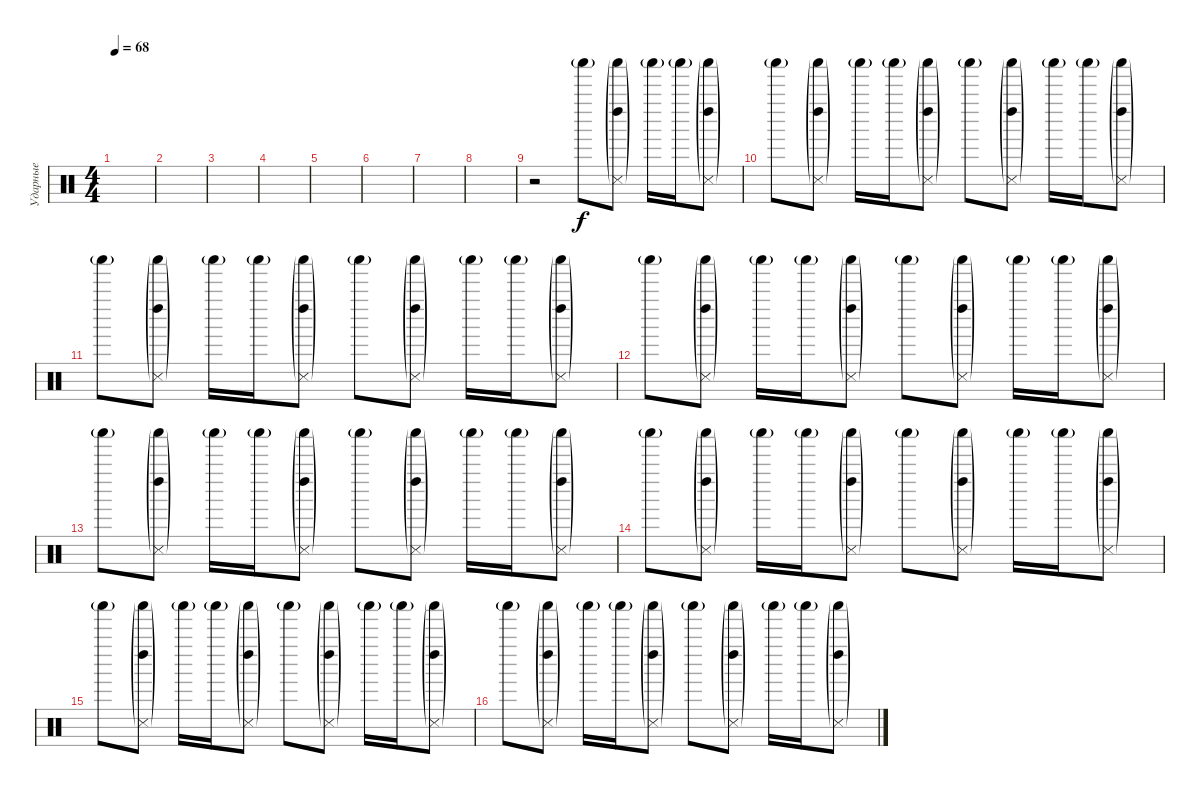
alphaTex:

\track ("Ударные" "Ударные") {instrument percussion}
\staff {score}
\articulation defaults
\ts (4 4)
\tempo 68
\clef neutral
\ks c
|
|
|
|
|
|
|
|
r.2 "Shaker (hit)"{g}.8 ("Left Maraca (hit)"{g} "Shaker (hit)"{g} "Snare (side stick) 3"{g}).8 "Shaker (hit)"{g}.16 "Shaker (hit)"{g}.16 ("Left Maraca (hit)"{g} "Shaker (hit)"{g} "Snare (side stick) 3"{g}).8 |
"Shaker (hit)"{g}.8 ("Left Maraca (hit)"{g} "Shaker (hit)"{g} "Snare (side stick) 3"{g}).8 "Shaker (hit)"{g}.16 "Shaker (hit)"{g}.16 ("Left Maraca (hit)"{g} "Shaker (hit)"{g} "Snare (side stick) 3"{g}).8 "Shaker (hit)"{g}.8 ("Left Maraca (hit)"{g} "Shaker (hit)"{g} "Snare (side stick) 3"{g}).8 "Shaker (hit)"{g}.16 "Shaker (hit)"{g}.16 ("Left Maraca (hit)"{g} "Shaker (hit)"{g} "Snare (side stick) 3"{g}).8 |
"Shaker (hit)"{g}.8 ("Left Maraca (hit)"{g} "Shaker (hit)"{g} "Snare (side stick) 3"{g}).8 "Shaker (hit)"{g}.16 "Shaker (hit)"{g}.16 ("Left Maraca (hit)"{g} "Shaker (hit)"{g} "Snare (side stick) 3"{g}).8 "Shaker (hit)"{g}.8 ("Left Maraca (hit)"{g} "Shaker (hit)"{g} "Snare (side stick) 3"{g}).8 "Shaker (hit)"{g}.16 "Shaker (hit)"{g}.16 ("Left Maraca (hit)"{g} "Shaker (hit)"{g} "Snare (side stick) 3"{g}).8 |
"Shaker (hit)"{g}.8 ("Left Maraca (hit)"{g} "Shaker (hit)"{g} "Snare (side stick) 3"{g}).8 "Shaker (hit)"{g}.16 "Shaker (hit)"{g}.16 ("Left Maraca (hit)"{g} "Shaker (hit)"{g} "Snare (side stick) 3"{g}).8 "Shaker (hit)"{g}.8 ("Left Maraca (hit)"{g} "Shaker (hit)"{g} "Snare (side stick) 3"{g}).8 "Shaker (hit)"{g}.16 "Shaker (hit)"{g}.16 ("Left Maraca (hit)"{g} "Shaker (hit)"{g} "Snare (side stick) 3"{g}).8 |
"Shaker (hit)"{g}.8 ("Left Maraca (hit)"{g} "Shaker (hit)"{g} "Snare (side stick) 3"{g}).8 "Shaker (hit)"{g}.16 "Shaker (hit)"{g}.16 ("Left Maraca (hit)"{g} "Shaker (hit)"{g} "Snare (side stick) 3"{g}).8 "Shaker (hit)"{g}.8 ("Left Maraca (hit)"{g} "Shaker (hit)"{g} "Snare (side stick) 3"{g}).8 "Shaker (hit)"{g}.16 "Shaker (hit)"{g}.16 ("Left Maraca (hit)"{g} "Shaker (hit)"{g} "Snare (side stick) 3"{g}).8 |
"Shaker (hit)"{g}.8 ("Left Maraca (hit)"{g} "Shaker (hit)"{g} "Snare (side stick) 3"{g}).8 "Shaker (hit)"{g}.16 "Shaker (hit)"{g}.16 ("Left Maraca (hit)"{g} "Shaker (hit)"{g} "Snare (side stick) 3"{g}).8 "Shaker (hit)"{g}.8 ("Left Maraca (hit)"{g} "Shaker (hit)"{g} "Snare (side stick) 3"{g}).8 "Shaker (hit)"{g}.16 "Shaker (hit)"{g}.16 ("Left Maraca (hit)"{g} "Shaker (hit)"{g} "Snare (side stick) 3"{g}).8 |
"Shaker (hit)"{g}.8 ("Left Maraca (hit)"{g} "Shaker (hit)"{g} "Snare (side stick) 3"{g}).8 "Shaker (hit)"{g}.16 "Shaker (hit)"{g}.16 ("Left Maraca (hit)"{g} "Shaker (hit)"{g} "Snare (side stick) 3"{g}).8 "Shaker (hit)"{g}.8 ("Left Maraca (hit)"{g} "Shaker (hit)"{g} "Snare (side stick) 3"{g}).8 "Shaker (hit)"{g}.16 "Shaker (hit)"{g}.16 ("Left Maraca (hit)"{g} "Shaker (hit)"{g} "Snare (side stick) 3"{g}).8 |
"Shaker (hit)"{g}.8 ("Left Maraca (hit)"{g} "Shaker (hit)"{g} "Snare (side stick) 3"{g}).8 "Shaker (hit)"{g}.16 "Shaker (hit)"{g}.16 ("Left Maraca (hit)"{g} "Shaker (hit)"{g} "Snare (side stick) 3"{g}).8 "Shaker (hit)"{g}.8 ("Left Maraca (hit)"{g} "Shaker (hit)"{g} "Snare (side stick) 3"{g}).8 "Shaker (hit)"{g}.16 "Shaker (hit)"{g}.16 ("Left Maraca (hit)"{g} "Shaker (hit)"{g} "Snare (side stick) 3"{g}).8
